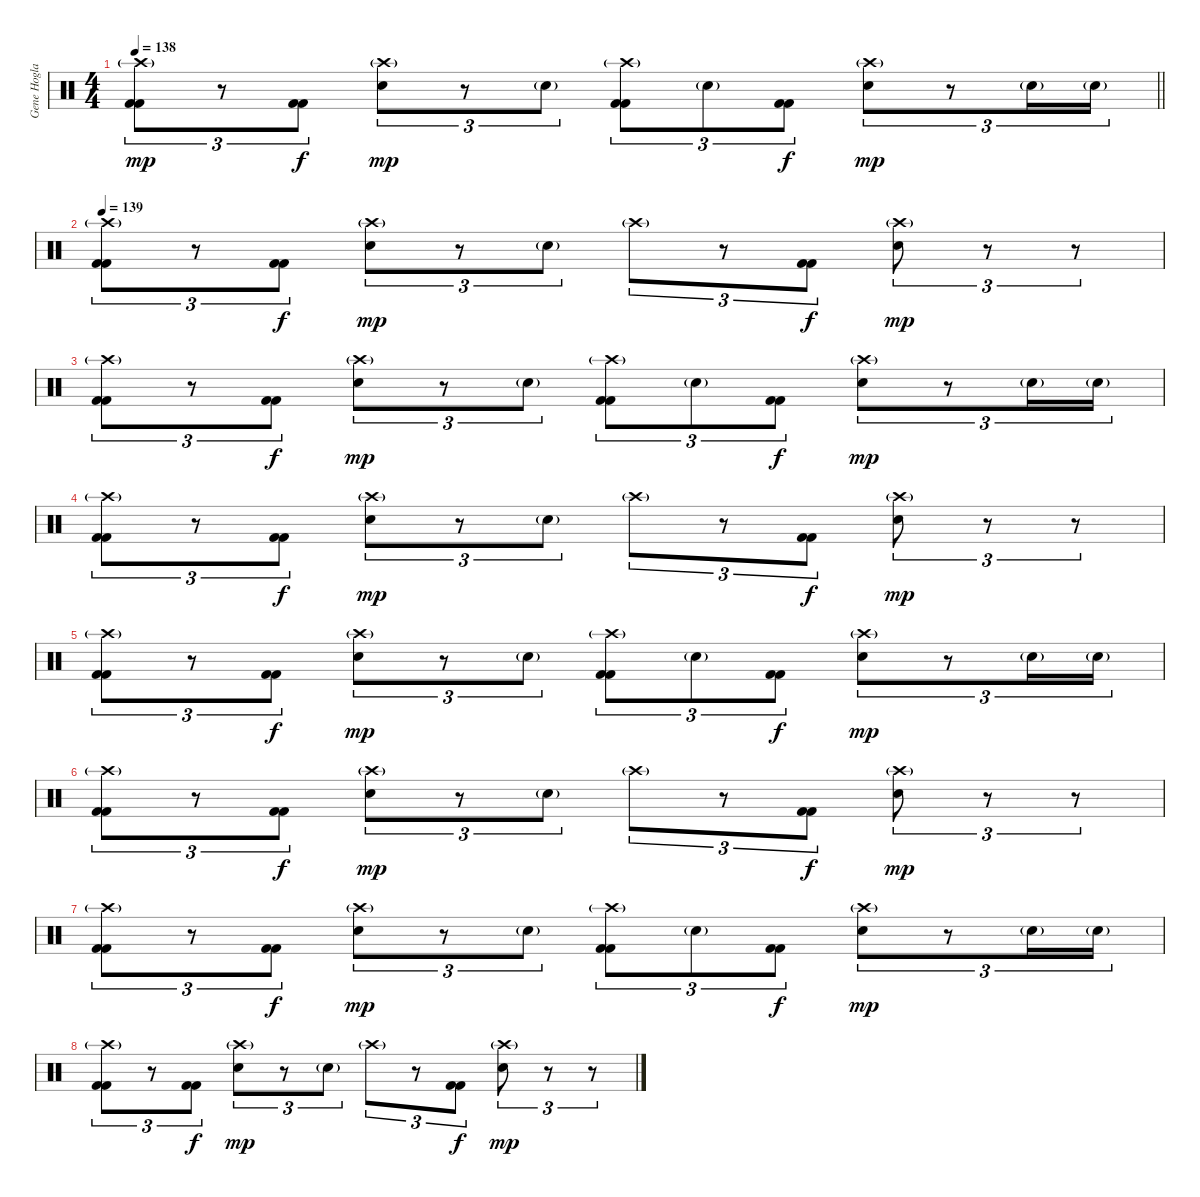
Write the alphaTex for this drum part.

\track ("Gene Hoglan" "Gene Hogla") {instrument percussion}
\staff {score}
\articulation defaults
\ts (4 4)
\tempo 138
\clef neutral
\barLineRight lightlight
\ks c
("Crash high (hit)"{g} "Kick (hit) 2" "Kick (hit) 2").8{tu (3 2) dy mp} r.8{tu (3 2)} ("Kick (hit) 2" "Kick (hit) 2").8{tu (3 2) dy f} ("Crash high (hit)"{g} "Electric Snare (hit)").8{tu (3 2) dy mp} r.8{tu (3 2)} "Electric Snare (hit)"{g}.8{tu (3 2)} ("Crash high (hit)"{g} "Kick (hit) 2" "Kick (hit) 2").8{tu (3 2)} "Electric Snare (hit)"{g}.8{tu (3 2)} ("Kick (hit) 2" "Kick (hit) 2").8{tu (3 2) dy f} ("Crash high (hit)"{g} "Electric Snare (hit)").8{tu (3 2) dy mp} r.8{tu (3 2)} "Electric Snare (hit)"{g}.16{tu (3 2)} "Electric Snare (hit)"{g}.16{tu (3 2)} |
\tempo 139
("Crash high (hit)"{g} "Kick (hit) 2" "Kick (hit) 2").8{tu (3 2)} r.8{tu (3 2)} ("Kick (hit) 2" "Kick (hit) 2").8{tu (3 2) dy f} ("Crash high (hit)"{g} "Electric Snare (hit)").8{tu (3 2) dy mp} r.8{tu (3 2)} "Electric Snare (hit)"{g}.8{tu (3 2)} "Crash high (hit)"{g}.8{tu (3 2)} r.8{tu (3 2)} ("Kick (hit) 2" "Kick (hit) 2").8{tu (3 2) dy f} ("Crash high (hit)"{g} "Electric Snare (hit)").8{tu (3 2) dy mp} r.8{tu (3 2)} r.8{tu (3 2)} |
("Crash high (hit)"{g} "Kick (hit) 2" "Kick (hit) 2").8{tu (3 2)} r.8{tu (3 2)} ("Kick (hit) 2" "Kick (hit) 2").8{tu (3 2) dy f} ("Crash high (hit)"{g} "Electric Snare (hit)").8{tu (3 2) dy mp} r.8{tu (3 2)} "Electric Snare (hit)"{g}.8{tu (3 2)} ("Crash high (hit)"{g} "Kick (hit) 2" "Kick (hit) 2").8{tu (3 2)} "Electric Snare (hit)"{g}.8{tu (3 2)} ("Kick (hit) 2" "Kick (hit) 2").8{tu (3 2) dy f} ("Crash high (hit)"{g} "Electric Snare (hit)").8{tu (3 2) dy mp} r.8{tu (3 2)} "Electric Snare (hit)"{g}.16{tu (3 2)} "Electric Snare (hit)"{g}.16{tu (3 2)} |
("Crash high (hit)"{g} "Kick (hit) 2" "Kick (hit) 2").8{tu (3 2)} r.8{tu (3 2)} ("Kick (hit) 2" "Kick (hit) 2").8{tu (3 2) dy f} ("Crash high (hit)"{g} "Electric Snare (hit)").8{tu (3 2) dy mp} r.8{tu (3 2)} "Electric Snare (hit)"{g}.8{tu (3 2)} "Crash high (hit)"{g}.8{tu (3 2)} r.8{tu (3 2)} ("Kick (hit) 2" "Kick (hit) 2").8{tu (3 2) dy f} ("Crash high (hit)"{g} "Electric Snare (hit)").8{tu (3 2) dy mp} r.8{tu (3 2)} r.8{tu (3 2)} |
("Crash high (hit)"{g} "Kick (hit) 2" "Kick (hit) 2").8{tu (3 2)} r.8{tu (3 2)} ("Kick (hit) 2" "Kick (hit) 2").8{tu (3 2) dy f} ("Crash high (hit)"{g} "Electric Snare (hit)").8{tu (3 2) dy mp} r.8{tu (3 2)} "Electric Snare (hit)"{g}.8{tu (3 2)} ("Crash high (hit)"{g} "Kick (hit) 2" "Kick (hit) 2").8{tu (3 2)} "Electric Snare (hit)"{g}.8{tu (3 2)} ("Kick (hit) 2" "Kick (hit) 2").8{tu (3 2) dy f} ("Crash high (hit)"{g} "Electric Snare (hit)").8{tu (3 2) dy mp} r.8{tu (3 2)} "Electric Snare (hit)"{g}.16{tu (3 2)} "Electric Snare (hit)"{g}.16{tu (3 2)} |
("Crash high (hit)"{g} "Kick (hit) 2" "Kick (hit) 2").8{tu (3 2)} r.8{tu (3 2)} ("Kick (hit) 2" "Kick (hit) 2").8{tu (3 2) dy f} ("Crash high (hit)"{g} "Electric Snare (hit)").8{tu (3 2) dy mp} r.8{tu (3 2)} "Electric Snare (hit)"{g}.8{tu (3 2)} "Crash high (hit)"{g}.8{tu (3 2)} r.8{tu (3 2)} ("Kick (hit) 2" "Kick (hit) 2").8{tu (3 2) dy f} ("Crash high (hit)"{g} "Electric Snare (hit)").8{tu (3 2) dy mp} r.8{tu (3 2)} r.8{tu (3 2)} |
("Crash high (hit)"{g} "Kick (hit) 2" "Kick (hit) 2").8{tu (3 2)} r.8{tu (3 2)} ("Kick (hit) 2" "Kick (hit) 2").8{tu (3 2) dy f} ("Crash high (hit)"{g} "Electric Snare (hit)").8{tu (3 2) dy mp} r.8{tu (3 2)} "Electric Snare (hit)"{g}.8{tu (3 2)} ("Crash high (hit)"{g} "Kick (hit) 2" "Kick (hit) 2").8{tu (3 2)} "Electric Snare (hit)"{g}.8{tu (3 2)} ("Kick (hit) 2" "Kick (hit) 2").8{tu (3 2) dy f} ("Crash high (hit)"{g} "Electric Snare (hit)").8{tu (3 2) dy mp} r.8{tu (3 2)} "Electric Snare (hit)"{g}.16{tu (3 2)} "Electric Snare (hit)"{g}.16{tu (3 2)} |
("Crash high (hit)"{g} "Kick (hit) 2" "Kick (hit) 2").8{tu (3 2)} r.8{tu (3 2)} ("Kick (hit) 2" "Kick (hit) 2").8{tu (3 2) dy f} ("Crash high (hit)"{g} "Electric Snare (hit)").8{tu (3 2) dy mp} r.8{tu (3 2)} "Electric Snare (hit)"{g}.8{tu (3 2)} "Crash high (hit)"{g}.8{tu (3 2)} r.8{tu (3 2)} ("Kick (hit) 2" "Kick (hit) 2").8{tu (3 2) dy f} ("Crash high (hit)"{g} "Electric Snare (hit)").8{tu (3 2) dy mp} r.8{tu (3 2)} r.8{tu (3 2)}
